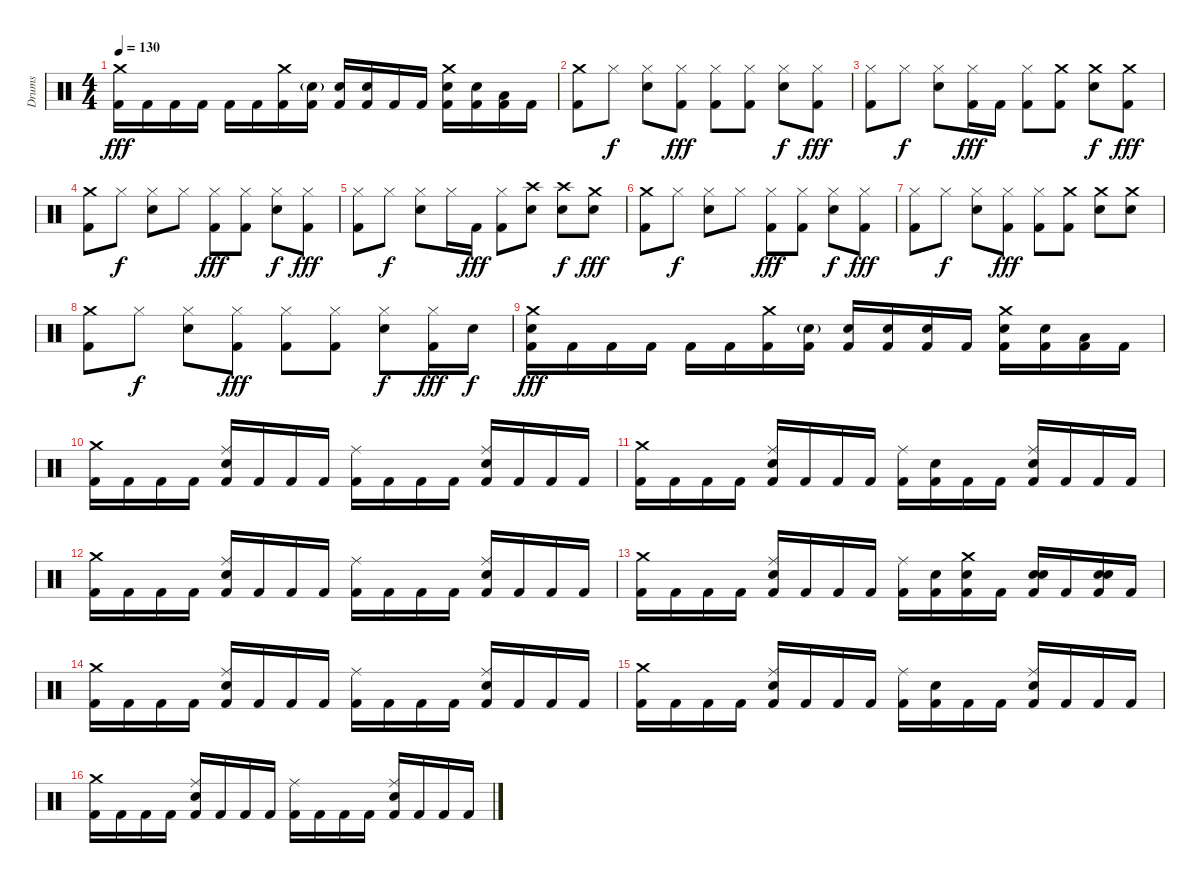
\track ("Drums" "Drums") {instrument percussion}
\staff {score}
\articulation defaults
\ts (4 4)
\tempo 130
\clef neutral
\ks c
("Crash medium (hit)" "Kick (hit) 2").16{dy fff} "Kick (hit) 2".16 "Kick (hit) 2".16 "Kick (hit) 2".16 "Kick (hit) 2".16 "Kick (hit) 2".16 ("Crash medium (hit)" "Kick (hit) 2").16 ("Electric Snare (hit)"{g} "Kick (hit) 2").16 ("Electric Snare (hit)" "Kick (hit) 2").16 ("Electric Snare (hit)" "Kick (hit) 2").16 "Kick (hit) 2".16 "Kick (hit) 2".16 ("Crash medium (hit)" "Electric Snare (hit)" "Kick (hit) 2").16 ("Electric Snare (hit)" "Kick (hit) 2").16 ("Low Tom (hit)" "Kick (hit) 2").16 "Kick (hit) 2".16 |
("Crash medium (hit)" "Kick (hit) 2").8 "Hi-Hat (closed)".8{dy f} ("Hi-Hat (closed)" "Electric Snare (hit)").8 ("Hi-Hat (closed)" "Kick (hit) 2").8{dy fff} ("Hi-Hat (closed)" "Kick (hit) 2").8 ("Hi-Hat (closed)" "Kick (hit) 2").8 ("Hi-Hat (closed)" "Electric Snare (hit)").8{dy f} ("Hi-Hat (closed)" "Kick (hit) 2").8{dy fff} |
("Hi-Hat (closed)" "Kick (hit) 2").8 "Hi-Hat (closed)".8{dy f} ("Hi-Hat (closed)" "Electric Snare (hit)").8 ("Hi-Hat (closed)" "Kick (hit) 2").16{dy fff} "Kick (hit) 2".16 ("Hi-Hat (closed)" "Kick (hit) 2").8 ("Crash medium (hit)" "Kick (hit) 2").8 ("Crash medium (hit)" "Electric Snare (hit)").8{dy f} ("Crash medium (hit)" "Kick (hit) 2").8{dy fff} |
("Crash medium (hit)" "Kick (hit) 2").8 "Hi-Hat (closed)".8{dy f} ("Hi-Hat (closed)" "Electric Snare (hit)").8 "Hi-Hat (closed)".8 ("Hi-Hat (closed)" "Kick (hit) 2").8{dy fff} ("Hi-Hat (closed)" "Kick (hit) 2").8 ("Hi-Hat (closed)" "Electric Snare (hit)").8{dy f} ("Hi-Hat (closed)" "Kick (hit) 2").8{dy fff} |
("Hi-Hat (closed)" "Kick (hit) 2").8 "Hi-Hat (closed)".8{dy f} ("Hi-Hat (closed)" "Electric Snare (hit)").8 "Hi-Hat (closed)".16 "Kick (hit) 2".16{dy fff} ("Hi-Hat (closed)" "Kick (hit) 2").8 ("Crash high (hit)" "Electric Snare (hit)").8 ("Crash high (hit)" "Electric Snare (hit)").8{dy f} ("Crash medium (hit)" "Electric Snare (hit)").8{dy fff} |
("Crash medium (hit)" "Kick (hit) 2").8 "Hi-Hat (closed)".8{dy f} ("Hi-Hat (closed)" "Electric Snare (hit)").8 "Hi-Hat (closed)".8 ("Hi-Hat (closed)" "Kick (hit) 2").8{dy fff} ("Hi-Hat (closed)" "Kick (hit) 2").8 ("Hi-Hat (closed)" "Electric Snare (hit)").8{dy f} ("Hi-Hat (closed)" "Kick (hit) 2").8{dy fff} |
("Hi-Hat (closed)" "Kick (hit) 2").8 "Hi-Hat (closed)".8{dy f} ("Hi-Hat (closed)" "Electric Snare (hit)").8 ("Hi-Hat (closed)" "Kick (hit) 2").8{dy fff} ("Hi-Hat (closed)" "Kick (hit) 2").8 ("Crash medium (hit)" "Kick (hit) 2").8 ("Crash medium (hit)" "Electric Snare (hit)").8 ("Crash medium (hit)" "Electric Snare (hit)").8 |
("Crash medium (hit)" "Kick (hit) 2").8 "Hi-Hat (closed)".8{dy f} ("Hi-Hat (closed)" "Electric Snare (hit)").8 ("Hi-Hat (closed)" "Kick (hit) 2").8{dy fff} ("Hi-Hat (closed)" "Kick (hit) 2").8 ("Hi-Hat (closed)" "Kick (hit) 2").8 ("Hi-Hat (closed)" "Electric Snare (hit)").8{dy f} ("Hi-Hat (closed)" "Kick (hit) 2").16{dy fff} "Electric Snare (hit)".16{dy f} |
("Crash medium (hit)" "Electric Snare (hit)" "Kick (hit) 2").16{dy fff} "Kick (hit) 2".16 "Kick (hit) 2".16 "Kick (hit) 2".16 "Kick (hit) 2".16 "Kick (hit) 2".16 ("Crash medium (hit)" "Kick (hit) 2").16 ("Electric Snare (hit)"{g} "Kick (hit) 2").16 ("Electric Snare (hit)" "Kick (hit) 2").16 ("Electric Snare (hit)" "Kick (hit) 2").16 ("Electric Snare (hit)" "Kick (hit) 2").16 "Kick (hit) 2".16 ("Crash medium (hit)" "Electric Snare (hit)" "Kick (hit) 2").16 ("Electric Snare (hit)" "Kick (hit) 2").16 ("Low Tom (hit)" "Kick (hit) 2").16 "Kick (hit) 2".16 |
("Crash medium (hit)" "Kick (hit) 2").16 "Kick (hit) 2".16 "Kick (hit) 2".16 "Kick (hit) 2".16 ("Ride (middle)" "Snare (hit) 2" "Kick (hit) 2").16 "Kick (hit) 2".16 "Kick (hit) 2".16 "Kick (hit) 2".16 ("Ride (middle)" "Kick (hit) 2").16 "Kick (hit) 2".16 "Kick (hit) 2".16 "Kick (hit) 2".16 ("Ride (middle)" "Snare (hit) 2" "Kick (hit) 2").16 "Kick (hit) 2".16 "Kick (hit) 2".16 "Kick (hit) 2".16 |
("Crash medium (hit)" "Kick (hit) 2").16 "Kick (hit) 2".16 "Kick (hit) 2".16 "Kick (hit) 2".16 ("Ride (middle)" "Snare (hit) 2" "Kick (hit) 2").16 "Kick (hit) 2".16 "Kick (hit) 2".16 "Kick (hit) 2".16 ("Ride (middle)" "Kick (hit) 2").16 ("Snare (hit) 2" "Kick (hit) 2").16 "Kick (hit) 2".16 "Kick (hit) 2".16 ("Ride (middle)" "Snare (hit) 2" "Kick (hit) 2").16 "Kick (hit) 2".16 "Kick (hit) 2".16 "Kick (hit) 2".16 |
("Crash medium (hit)" "Kick (hit) 2").16 "Kick (hit) 2".16 "Kick (hit) 2".16 "Kick (hit) 2".16 ("Ride (middle)" "Snare (hit) 2" "Kick (hit) 2").16 "Kick (hit) 2".16 "Kick (hit) 2".16 "Kick (hit) 2".16 ("Ride (middle)" "Kick (hit) 2").16 "Kick (hit) 2".16 "Kick (hit) 2".16 "Kick (hit) 2".16 ("Ride (middle)" "Snare (hit) 2" "Kick (hit) 2").16 "Kick (hit) 2".16 "Kick (hit) 2".16 "Kick (hit) 2".16 |
("Crash medium (hit)" "Kick (hit) 2").16 "Kick (hit) 2".16 "Kick (hit) 2".16 "Kick (hit) 2".16 ("Ride (middle)" "Snare (hit) 2" "Kick (hit) 2").16 "Kick (hit) 2".16 "Kick (hit) 2".16 "Kick (hit) 2".16 ("Ride (middle)" "Kick (hit) 2").16 ("Snare (hit) 2" "Kick (hit) 2").16 ("Crash medium (hit)" "Snare (hit) 2" "Kick (hit) 2").16 "Kick (hit) 2".16 ("Electric Snare (hit)" "Snare (hit) 2" "Kick (hit) 2").16 "Kick (hit) 2".16 ("Electric Snare (hit)" "Snare (hit) 2" "Kick (hit) 2").16 "Kick (hit) 2".16 |
("Crash medium (hit)" "Kick (hit) 2").16 "Kick (hit) 2".16 "Kick (hit) 2".16 "Kick (hit) 2".16 ("Ride (middle)" "Snare (hit) 2" "Kick (hit) 2").16 "Kick (hit) 2".16 "Kick (hit) 2".16 "Kick (hit) 2".16 ("Ride (middle)" "Kick (hit) 2").16 "Kick (hit) 2".16 "Kick (hit) 2".16 "Kick (hit) 2".16 ("Ride (middle)" "Snare (hit) 2" "Kick (hit) 2").16 "Kick (hit) 2".16 "Kick (hit) 2".16 "Kick (hit) 2".16 |
("Crash medium (hit)" "Kick (hit) 2").16 "Kick (hit) 2".16 "Kick (hit) 2".16 "Kick (hit) 2".16 ("Ride (middle)" "Snare (hit) 2" "Kick (hit) 2").16 "Kick (hit) 2".16 "Kick (hit) 2".16 "Kick (hit) 2".16 ("Ride (middle)" "Kick (hit) 2").16 ("Snare (hit) 2" "Kick (hit) 2").16 "Kick (hit) 2".16 "Kick (hit) 2".16 ("Ride (middle)" "Snare (hit) 2" "Kick (hit) 2").16 "Kick (hit) 2".16 "Kick (hit) 2".16 "Kick (hit) 2".16 |
("Crash medium (hit)" "Kick (hit) 2").16 "Kick (hit) 2".16 "Kick (hit) 2".16 "Kick (hit) 2".16 ("Ride (middle)" "Snare (hit) 2" "Kick (hit) 2").16 "Kick (hit) 2".16 "Kick (hit) 2".16 "Kick (hit) 2".16 ("Ride (middle)" "Kick (hit) 2").16 "Kick (hit) 2".16 "Kick (hit) 2".16 "Kick (hit) 2".16 ("Ride (middle)" "Snare (hit) 2" "Kick (hit) 2").16 "Kick (hit) 2".16 "Kick (hit) 2".16 "Kick (hit) 2".16
